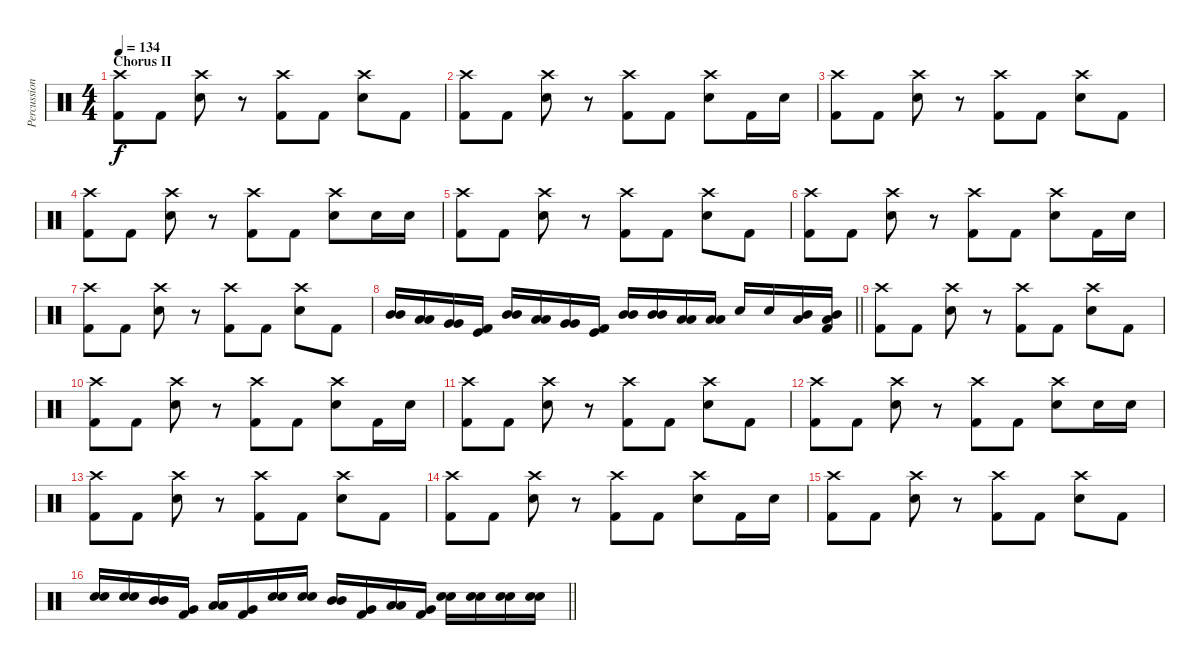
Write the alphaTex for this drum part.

\track ("Percussion" "Percussion") {instrument percussion}
\staff {score}
\articulation defaults
\ts (4 4)
\section ("" "Chorus II")
\tempo 134
\clef neutral
\ks c
("Crash high (hit)" "Kick (hit) 2").8{dy f} "Kick (hit) 2".8 ("Crash high (hit)" "Snare (hit) 2").8 r.8 ("Crash high (hit)" "Kick (hit) 2").8 "Kick (hit) 2".8 ("Crash high (hit)" "Snare (hit) 2").8 "Kick (hit) 2".8 |
("Crash high (hit)" "Kick (hit) 2").8 "Kick (hit) 2".8 ("Crash high (hit)" "Snare (hit) 2").8 r.8 ("Crash high (hit)" "Kick (hit) 2").8 "Kick (hit) 2".8 ("Crash high (hit)" "Snare (hit) 2").8 "Kick (hit) 2".16 "Snare (hit) 2".16 |
("Crash high (hit)" "Kick (hit) 2").8 "Kick (hit) 2".8 ("Crash high (hit)" "Snare (hit) 2").8 r.8 ("Crash high (hit)" "Kick (hit) 2").8 "Kick (hit) 2".8 ("Crash high (hit)" "Snare (hit) 2").8 "Kick (hit) 2".8 |
("Crash high (hit)" "Kick (hit) 2").8 "Kick (hit) 2".8 ("Crash high (hit)" "Snare (hit) 2").8 r.8 ("Crash high (hit)" "Kick (hit) 2").8 "Kick (hit) 2".8 ("Crash high (hit)" "Snare (hit) 2").8 "Snare (hit) 2".16 "Snare (hit) 2".16 |
("Crash high (hit)" "Kick (hit) 2").8 "Kick (hit) 2".8 ("Crash high (hit)" "Snare (hit) 2").8 r.8 ("Crash high (hit)" "Kick (hit) 2").8 "Kick (hit) 2".8 ("Crash high (hit)" "Snare (hit) 2").8 "Kick (hit) 2".8 |
("Crash high (hit)" "Kick (hit) 2").8 "Kick (hit) 2".8 ("Crash high (hit)" "Snare (hit) 2").8 r.8 ("Crash high (hit)" "Kick (hit) 2").8 "Kick (hit) 2".8 ("Crash high (hit)" "Snare (hit) 2").8 "Kick (hit) 2".16 "Snare (hit) 2".16 |
("Crash high (hit)" "Kick (hit) 2").8 "Kick (hit) 2".8 ("Crash high (hit)" "Snare (hit) 2").8 r.8 ("Crash high (hit)" "Kick (hit) 2").8 "Kick (hit) 2".8 ("Crash high (hit)" "Snare (hit) 2").8 "Kick (hit) 2".8 |
\barLineRight lightlight
("Mid Tom (hit)" "Mid Tom (hit)").16 ("Low Tom (hit)" "Low Tom (hit)").16 ("Very Low Tom (hit)" "Very Low Tom (hit)").16 ("Kick (hit)" "Kick (hit) 2").16 ("Mid Tom (hit)" "Mid Tom (hit)").16 ("Low Tom (hit)" "Low Tom (hit)").16 ("Very Low Tom (hit)" "Very Low Tom (hit)").16 ("Kick (hit)" "Kick (hit) 2").16 ("Mid Tom (hit)" "Mid Tom (hit)").16 ("Mid Tom (hit)" "Mid Tom (hit)").16 ("Low Tom (hit)" "Low Tom (hit)").16 ("Low Tom (hit)" "Low Tom (hit)").16 "Snare (hit) 2".16 "Snare (hit) 2".16 ("Mid Tom (hit)" "Low Tom (hit)").16 ("Mid Tom (hit)" "Low Tom (hit)" "Kick (hit) 2").16 |
("Crash high (hit)" "Kick (hit) 2").8 "Kick (hit) 2".8 ("Crash high (hit)" "Snare (hit) 2").8 r.8 ("Crash high (hit)" "Kick (hit) 2").8 "Kick (hit) 2".8 ("Crash high (hit)" "Snare (hit) 2").8 "Kick (hit) 2".8 |
("Crash high (hit)" "Kick (hit) 2").8 "Kick (hit) 2".8 ("Crash high (hit)" "Snare (hit) 2").8 r.8 ("Crash high (hit)" "Kick (hit) 2").8 "Kick (hit) 2".8 ("Crash high (hit)" "Snare (hit) 2").8 "Kick (hit) 2".16 "Snare (hit) 2".16 |
("Crash high (hit)" "Kick (hit) 2").8 "Kick (hit) 2".8 ("Crash high (hit)" "Snare (hit) 2").8 r.8 ("Crash high (hit)" "Kick (hit) 2").8 "Kick (hit) 2".8 ("Crash high (hit)" "Snare (hit) 2").8 "Kick (hit) 2".8 |
("Crash high (hit)" "Kick (hit) 2").8 "Kick (hit) 2".8 ("Crash high (hit)" "Snare (hit) 2").8 r.8 ("Crash high (hit)" "Kick (hit) 2").8 "Kick (hit) 2".8 ("Crash high (hit)" "Snare (hit) 2").8 "Snare (hit) 2".16 "Snare (hit) 2".16 |
("Crash high (hit)" "Kick (hit) 2").8 "Kick (hit) 2".8 ("Crash high (hit)" "Snare (hit) 2").8 r.8 ("Crash high (hit)" "Kick (hit) 2").8 "Kick (hit) 2".8 ("Crash high (hit)" "Snare (hit) 2").8 "Kick (hit) 2".8 |
("Crash high (hit)" "Kick (hit) 2").8 "Kick (hit) 2".8 ("Crash high (hit)" "Snare (hit) 2").8 r.8 ("Crash high (hit)" "Kick (hit) 2").8 "Kick (hit) 2".8 ("Crash high (hit)" "Snare (hit) 2").8 "Kick (hit) 2".16 "Snare (hit) 2".16 |
("Crash high (hit)" "Kick (hit) 2").8 "Kick (hit) 2".8 ("Crash high (hit)" "Snare (hit) 2").8 r.8 ("Crash high (hit)" "Kick (hit) 2").8 "Kick (hit) 2".8 ("Crash high (hit)" "Snare (hit) 2").8 "Kick (hit) 2".8 |
\barLineRight lightlight
("Snare (hit) 2" "Snare (hit) 2").16 ("Snare (hit) 2" "Snare (hit) 2").16 ("Mid Tom (hit)" "Mid Tom (hit)").16 ("Very Low Tom (hit)" "Kick (hit) 2").16 ("Low Tom (hit)" "Low Tom (hit)").16 ("Very Low Tom (hit)" "Kick (hit) 2").16 ("Snare (hit) 2" "Snare (hit) 2").16 ("Snare (hit) 2" "Snare (hit) 2").16 ("Mid Tom (hit)" "Mid Tom (hit)").16 ("Very Low Tom (hit)" "Kick (hit) 2").16 ("Low Tom (hit)" "Low Tom (hit)").16 ("Very Low Tom (hit)" "Kick (hit) 2").16 ("Snare (hit) 2" "Snare (hit) 2").16 ("Snare (hit) 2" "Snare (hit) 2").16 ("Snare (hit) 2" "Snare (hit) 2").16 ("Snare (hit) 2" "Snare (hit) 2").16
